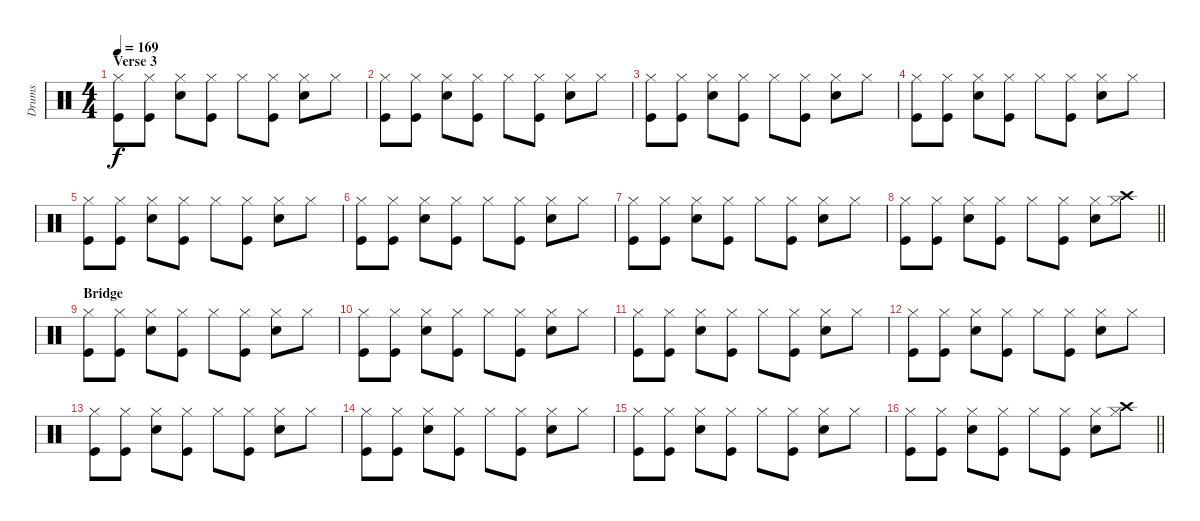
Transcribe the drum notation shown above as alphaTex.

\track ("Drums" "Drums") {instrument percussion}
\staff {score}
\articulation defaults
\ts (4 4)
\section ("" "Verse 3")
\tempo 169
\clef neutral
\ks c
("Hi-Hat (closed)" "Kick (hit)").8{dy f} ("Hi-Hat (closed)" "Kick (hit)").8 ("Hi-Hat (closed)" "Snare (hit) 2").8 ("Hi-Hat (closed)" "Kick (hit)").8 "Hi-Hat (closed)".8 ("Hi-Hat (closed)" "Kick (hit)").8 ("Hi-Hat (closed)" "Snare (hit) 2").8 "Hi-Hat (closed)".8 |
("Hi-Hat (closed)" "Kick (hit)").8 ("Hi-Hat (closed)" "Kick (hit)").8 ("Hi-Hat (closed)" "Snare (hit) 2").8 ("Hi-Hat (closed)" "Kick (hit)").8 "Hi-Hat (closed)".8 ("Hi-Hat (closed)" "Kick (hit)").8 ("Hi-Hat (closed)" "Snare (hit) 2").8 "Hi-Hat (closed)".8 |
("Hi-Hat (closed)" "Kick (hit)").8 ("Hi-Hat (closed)" "Kick (hit)").8 ("Hi-Hat (closed)" "Snare (hit) 2").8 ("Hi-Hat (closed)" "Kick (hit)").8 "Hi-Hat (closed)".8 ("Hi-Hat (closed)" "Kick (hit)").8 ("Hi-Hat (closed)" "Snare (hit) 2").8 "Hi-Hat (closed)".8 |
("Hi-Hat (closed)" "Kick (hit)").8 ("Hi-Hat (closed)" "Kick (hit)").8 ("Hi-Hat (closed)" "Snare (hit) 2").8 ("Hi-Hat (closed)" "Kick (hit)").8 "Hi-Hat (closed)".8 ("Hi-Hat (closed)" "Kick (hit)").8 ("Hi-Hat (closed)" "Snare (hit) 2").8 "Hi-Hat (closed)".8 |
("Hi-Hat (closed)" "Kick (hit)").8 ("Hi-Hat (closed)" "Kick (hit)").8 ("Hi-Hat (closed)" "Snare (hit) 2").8 ("Hi-Hat (closed)" "Kick (hit)").8 "Hi-Hat (closed)".8 ("Hi-Hat (closed)" "Kick (hit)").8 ("Hi-Hat (closed)" "Snare (hit) 2").8 "Hi-Hat (closed)".8 |
("Hi-Hat (closed)" "Kick (hit)").8 ("Hi-Hat (closed)" "Kick (hit)").8 ("Hi-Hat (closed)" "Snare (hit) 2").8 ("Hi-Hat (closed)" "Kick (hit)").8 "Hi-Hat (closed)".8 ("Hi-Hat (closed)" "Kick (hit)").8 ("Hi-Hat (closed)" "Snare (hit) 2").8 "Hi-Hat (closed)".8 |
("Hi-Hat (closed)" "Kick (hit)").8 ("Hi-Hat (closed)" "Kick (hit)").8 ("Hi-Hat (closed)" "Snare (hit) 2").8 ("Hi-Hat (closed)" "Kick (hit)").8 "Hi-Hat (closed)".8 ("Hi-Hat (closed)" "Kick (hit)").8 ("Hi-Hat (closed)" "Snare (hit) 2").8 "Hi-Hat (closed)".8 |
\barLineRight lightlight
("Hi-Hat (closed)" "Kick (hit)").8 ("Hi-Hat (closed)" "Kick (hit)").8 ("Hi-Hat (closed)" "Snare (hit) 2").8 ("Hi-Hat (closed)" "Kick (hit)").8 "Hi-Hat (closed)".8 ("Hi-Hat (closed)" "Kick (hit)").8 ("Hi-Hat (closed)" "Snare (hit) 2").8 ("Hi-Hat (closed)" "Crash high (hit)").8 |
\section ("" "Bridge")
("Hi-Hat (closed)" "Kick (hit)").8 ("Hi-Hat (closed)" "Kick (hit)").8 ("Hi-Hat (closed)" "Snare (hit) 2").8 ("Hi-Hat (closed)" "Kick (hit)").8 "Hi-Hat (closed)".8 ("Hi-Hat (closed)" "Kick (hit)").8 ("Hi-Hat (closed)" "Snare (hit) 2").8 "Hi-Hat (closed)".8 |
("Hi-Hat (closed)" "Kick (hit)").8 ("Hi-Hat (closed)" "Kick (hit)").8 ("Hi-Hat (closed)" "Snare (hit) 2").8 ("Hi-Hat (closed)" "Kick (hit)").8 "Hi-Hat (closed)".8 ("Hi-Hat (closed)" "Kick (hit)").8 ("Hi-Hat (closed)" "Snare (hit) 2").8 "Hi-Hat (closed)".8 |
("Hi-Hat (closed)" "Kick (hit)").8 ("Hi-Hat (closed)" "Kick (hit)").8 ("Hi-Hat (closed)" "Snare (hit) 2").8 ("Hi-Hat (closed)" "Kick (hit)").8 "Hi-Hat (closed)".8 ("Hi-Hat (closed)" "Kick (hit)").8 ("Hi-Hat (closed)" "Snare (hit) 2").8 "Hi-Hat (closed)".8 |
("Hi-Hat (closed)" "Kick (hit)").8 ("Hi-Hat (closed)" "Kick (hit)").8 ("Hi-Hat (closed)" "Snare (hit) 2").8 ("Hi-Hat (closed)" "Kick (hit)").8 "Hi-Hat (closed)".8 ("Hi-Hat (closed)" "Kick (hit)").8 ("Hi-Hat (closed)" "Snare (hit) 2").8 "Hi-Hat (closed)".8 |
("Hi-Hat (closed)" "Kick (hit)").8 ("Hi-Hat (closed)" "Kick (hit)").8 ("Hi-Hat (closed)" "Snare (hit) 2").8 ("Hi-Hat (closed)" "Kick (hit)").8 "Hi-Hat (closed)".8 ("Hi-Hat (closed)" "Kick (hit)").8 ("Hi-Hat (closed)" "Snare (hit) 2").8 "Hi-Hat (closed)".8 |
("Hi-Hat (closed)" "Kick (hit)").8 ("Hi-Hat (closed)" "Kick (hit)").8 ("Hi-Hat (closed)" "Snare (hit) 2").8 ("Hi-Hat (closed)" "Kick (hit)").8 "Hi-Hat (closed)".8 ("Hi-Hat (closed)" "Kick (hit)").8 ("Hi-Hat (closed)" "Snare (hit) 2").8 "Hi-Hat (closed)".8 |
("Hi-Hat (closed)" "Kick (hit)").8 ("Hi-Hat (closed)" "Kick (hit)").8 ("Hi-Hat (closed)" "Snare (hit) 2").8 ("Hi-Hat (closed)" "Kick (hit)").8 "Hi-Hat (closed)".8 ("Hi-Hat (closed)" "Kick (hit)").8 ("Hi-Hat (closed)" "Snare (hit) 2").8 "Hi-Hat (closed)".8 |
\barLineRight lightlight
("Hi-Hat (closed)" "Kick (hit)").8 ("Hi-Hat (closed)" "Kick (hit)").8 ("Hi-Hat (closed)" "Snare (hit) 2").8 ("Hi-Hat (closed)" "Kick (hit)").8 "Hi-Hat (closed)".8 ("Hi-Hat (closed)" "Kick (hit)").8 ("Hi-Hat (closed)" "Snare (hit) 2").8 ("Hi-Hat (closed)" "Crash high (hit)").8
